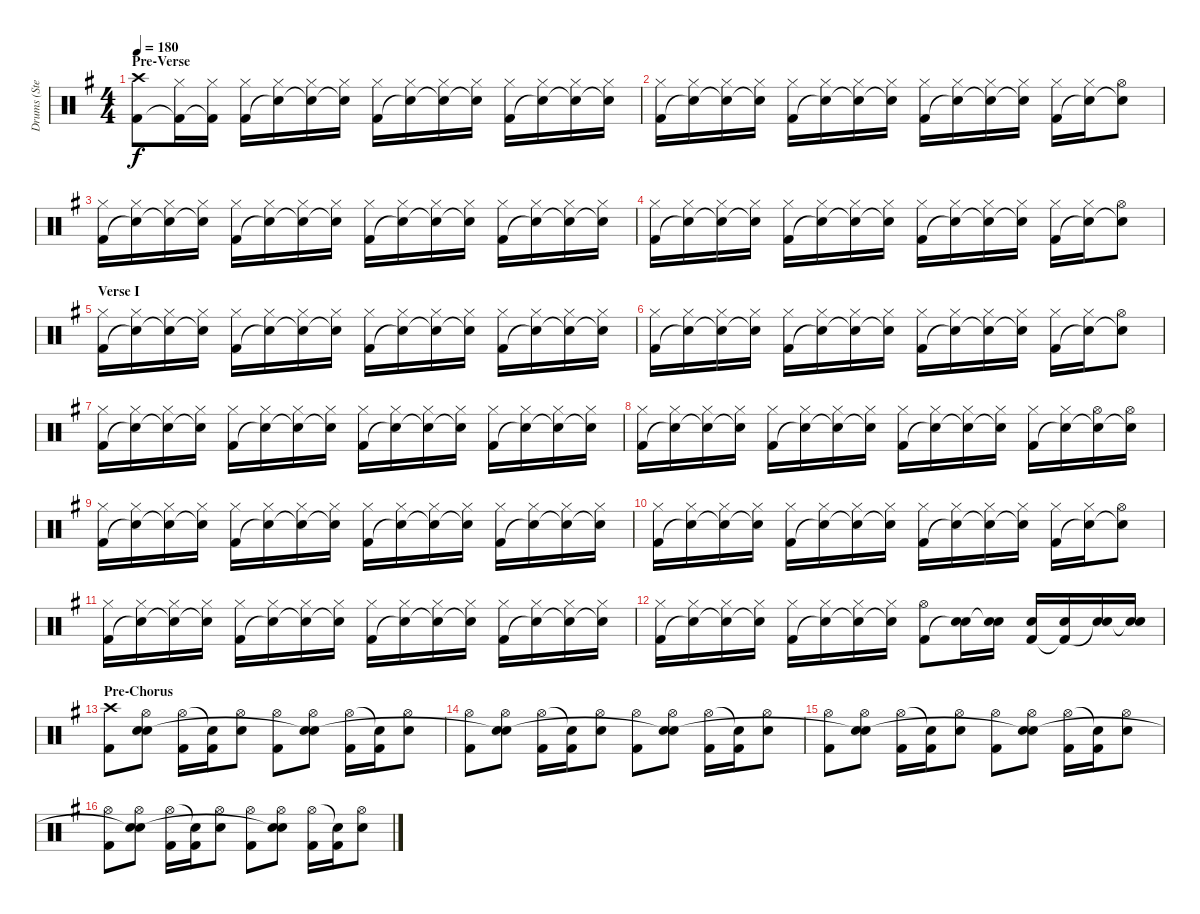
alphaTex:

\track ("Drums (Stevo)" "Drums (Ste") {instrument percussion}
\staff {score}
\articulation defaults
\ts (4 4)
\section ("" "Pre-Verse")
\tempo 180
\clef neutral
\ks g
("Crash high (hit)" "Kick (hit) 2").8{dy f} ("Hi-Hat (closed)" "Kick (hit) 2"{t}).16 ("Hi-Hat (closed)" "Kick (hit) 2"{t}).16 ("Hi-Hat (closed)" "Kick (hit) 2").16 ("Hi-Hat (closed)" "Snare (hit)"{t}).16 ("Hi-Hat (closed)" "Snare (hit)"{t}).16 ("Hi-Hat (closed)" "Snare (hit)"{t}).16 ("Hi-Hat (closed)" "Kick (hit) 2").16 ("Hi-Hat (closed)" "Snare (hit)"{t}).16 ("Hi-Hat (closed)" "Snare (hit)"{t}).16 ("Hi-Hat (closed)" "Snare (hit)"{t}).16 ("Hi-Hat (closed)" "Kick (hit) 2").16 ("Hi-Hat (closed)" "Snare (hit)"{t}).16 ("Hi-Hat (closed)" "Snare (hit)"{t}).16 ("Hi-Hat (closed)" "Snare (hit)"{t}).16 |
("Hi-Hat (closed)" "Kick (hit) 2").16 ("Hi-Hat (closed)" "Snare (hit)"{t}).16 ("Hi-Hat (closed)" "Snare (hit)"{t}).16 ("Hi-Hat (closed)" "Snare (hit)"{t}).16 ("Hi-Hat (closed)" "Kick (hit) 2").16 ("Hi-Hat (closed)" "Snare (hit)"{t}).16 ("Hi-Hat (closed)" "Snare (hit)"{t}).16 ("Hi-Hat (closed)" "Snare (hit)"{t}).16 ("Hi-Hat (closed)" "Kick (hit) 2").16 ("Hi-Hat (closed)" "Snare (hit)"{t}).16 ("Hi-Hat (closed)" "Snare (hit)"{t}).16 ("Hi-Hat (closed)" "Snare (hit)"{t}).16 ("Hi-Hat (closed)" "Kick (hit) 2").16 ("Hi-Hat (closed)" "Snare (hit)"{t}).16 ("Hi-Hat (open)" "Snare (hit)"{t}).8 |
("Hi-Hat (closed)" "Kick (hit) 2").16 ("Hi-Hat (closed)" "Snare (hit)"{t}).16 ("Hi-Hat (closed)" "Snare (hit)"{t}).16 ("Hi-Hat (closed)" "Snare (hit)"{t}).16 ("Hi-Hat (closed)" "Kick (hit) 2").16 ("Hi-Hat (closed)" "Snare (hit)"{t}).16 ("Hi-Hat (closed)" "Snare (hit)"{t}).16 ("Hi-Hat (closed)" "Snare (hit)"{t}).16 ("Hi-Hat (closed)" "Kick (hit) 2").16 ("Hi-Hat (closed)" "Snare (hit)"{t}).16 ("Hi-Hat (closed)" "Snare (hit)"{t}).16 ("Hi-Hat (closed)" "Snare (hit)"{t}).16 ("Hi-Hat (closed)" "Kick (hit) 2").16 ("Hi-Hat (closed)" "Snare (hit)"{t}).16 ("Hi-Hat (closed)" "Snare (hit)"{t}).16 ("Hi-Hat (closed)" "Snare (hit)"{t}).16 |
("Hi-Hat (closed)" "Kick (hit) 2").16 ("Hi-Hat (closed)" "Snare (hit)"{t}).16 ("Hi-Hat (closed)" "Snare (hit)"{t}).16 ("Hi-Hat (closed)" "Snare (hit)"{t}).16 ("Hi-Hat (closed)" "Kick (hit) 2").16 ("Hi-Hat (closed)" "Snare (hit)"{t}).16 ("Hi-Hat (closed)" "Snare (hit)"{t}).16 ("Hi-Hat (closed)" "Snare (hit)"{t}).16 ("Hi-Hat (closed)" "Kick (hit) 2").16 ("Hi-Hat (closed)" "Snare (hit)"{t}).16 ("Hi-Hat (closed)" "Snare (hit)"{t}).16 ("Hi-Hat (closed)" "Snare (hit)"{t}).16 ("Hi-Hat (closed)" "Kick (hit) 2").16 ("Hi-Hat (closed)" "Snare (hit)"{t}).16 ("Hi-Hat (open)" "Snare (hit)"{t}).8 |
\section ("" "Verse I")
("Hi-Hat (closed)" "Kick (hit) 2").16 ("Hi-Hat (closed)" "Snare (hit)"{t}).16 ("Hi-Hat (closed)" "Snare (hit)"{t}).16 ("Hi-Hat (closed)" "Snare (hit)"{t}).16 ("Hi-Hat (closed)" "Kick (hit) 2").16 ("Hi-Hat (closed)" "Snare (hit)"{t}).16 ("Hi-Hat (closed)" "Snare (hit)"{t}).16 ("Hi-Hat (closed)" "Snare (hit)"{t}).16 ("Hi-Hat (closed)" "Kick (hit) 2").16 ("Hi-Hat (closed)" "Snare (hit)"{t}).16 ("Hi-Hat (closed)" "Snare (hit)"{t}).16 ("Hi-Hat (closed)" "Snare (hit)"{t}).16 ("Hi-Hat (closed)" "Kick (hit) 2").16 ("Hi-Hat (closed)" "Snare (hit)"{t}).16 ("Hi-Hat (closed)" "Snare (hit)"{t}).16 ("Hi-Hat (closed)" "Snare (hit)"{t}).16 |
("Hi-Hat (closed)" "Kick (hit) 2").16 ("Hi-Hat (closed)" "Snare (hit)"{t}).16 ("Hi-Hat (closed)" "Snare (hit)"{t}).16 ("Hi-Hat (closed)" "Snare (hit)"{t}).16 ("Hi-Hat (closed)" "Kick (hit) 2").16 ("Hi-Hat (closed)" "Snare (hit)"{t}).16 ("Hi-Hat (closed)" "Snare (hit)"{t}).16 ("Hi-Hat (closed)" "Snare (hit)"{t}).16 ("Hi-Hat (closed)" "Kick (hit) 2").16 ("Hi-Hat (closed)" "Snare (hit)"{t}).16 ("Hi-Hat (closed)" "Snare (hit)"{t}).16 ("Hi-Hat (closed)" "Snare (hit)"{t}).16 ("Hi-Hat (closed)" "Kick (hit) 2").16 ("Hi-Hat (closed)" "Snare (hit)"{t}).16 ("Hi-Hat (open)" "Snare (hit)"{t}).8 |
("Hi-Hat (closed)" "Kick (hit) 2").16 ("Hi-Hat (closed)" "Snare (hit)"{t}).16 ("Hi-Hat (closed)" "Snare (hit)"{t}).16 ("Hi-Hat (closed)" "Snare (hit)"{t}).16 ("Hi-Hat (closed)" "Kick (hit) 2").16 ("Hi-Hat (closed)" "Snare (hit)"{t}).16 ("Hi-Hat (closed)" "Snare (hit)"{t}).16 ("Hi-Hat (closed)" "Snare (hit)"{t}).16 ("Hi-Hat (closed)" "Kick (hit) 2").16 ("Hi-Hat (closed)" "Snare (hit)"{t}).16 ("Hi-Hat (closed)" "Snare (hit)"{t}).16 ("Hi-Hat (closed)" "Snare (hit)"{t}).16 ("Hi-Hat (closed)" "Kick (hit) 2").16 ("Hi-Hat (closed)" "Snare (hit)"{t}).16 ("Hi-Hat (closed)" "Snare (hit)"{t}).16 ("Hi-Hat (closed)" "Snare (hit)"{t}).16 |
("Hi-Hat (closed)" "Kick (hit) 2").16 ("Hi-Hat (closed)" "Snare (hit)"{t}).16 ("Hi-Hat (closed)" "Snare (hit)"{t}).16 ("Hi-Hat (closed)" "Snare (hit)"{t}).16 ("Hi-Hat (closed)" "Kick (hit) 2").16 ("Hi-Hat (closed)" "Snare (hit)"{t}).16 ("Hi-Hat (closed)" "Snare (hit)"{t}).16 ("Hi-Hat (closed)" "Snare (hit)"{t}).16 ("Hi-Hat (closed)" "Kick (hit) 2").16 ("Hi-Hat (closed)" "Snare (hit)"{t}).16 ("Hi-Hat (closed)" "Snare (hit)"{t}).16 ("Hi-Hat (closed)" "Snare (hit)"{t}).16 ("Hi-Hat (closed)" "Kick (hit) 2").16 ("Hi-Hat (closed)" "Snare (hit)"{t}).16 ("Hi-Hat (open)" "Snare (hit)"{t}).16 ("Hi-Hat (open)" "Snare (hit)"{t}).16 |
("Hi-Hat (closed)" "Kick (hit) 2").16 ("Hi-Hat (closed)" "Snare (hit)"{t}).16 ("Hi-Hat (closed)" "Snare (hit)"{t}).16 ("Hi-Hat (closed)" "Snare (hit)"{t}).16 ("Hi-Hat (closed)" "Kick (hit) 2").16 ("Hi-Hat (closed)" "Snare (hit)"{t}).16 ("Hi-Hat (closed)" "Snare (hit)"{t}).16 ("Hi-Hat (closed)" "Snare (hit)"{t}).16 ("Hi-Hat (closed)" "Kick (hit) 2").16 ("Hi-Hat (closed)" "Snare (hit)"{t}).16 ("Hi-Hat (closed)" "Snare (hit)"{t}).16 ("Hi-Hat (closed)" "Snare (hit)"{t}).16 ("Hi-Hat (closed)" "Kick (hit) 2").16 ("Hi-Hat (closed)" "Snare (hit)"{t}).16 ("Hi-Hat (closed)" "Snare (hit)"{t}).16 ("Hi-Hat (closed)" "Snare (hit)"{t}).16 |
("Hi-Hat (closed)" "Kick (hit) 2").16 ("Hi-Hat (closed)" "Snare (hit)"{t}).16 ("Hi-Hat (closed)" "Snare (hit)"{t}).16 ("Hi-Hat (closed)" "Snare (hit)"{t}).16 ("Hi-Hat (closed)" "Kick (hit) 2").16 ("Hi-Hat (closed)" "Snare (hit)"{t}).16 ("Hi-Hat (closed)" "Snare (hit)"{t}).16 ("Hi-Hat (closed)" "Snare (hit)"{t}).16 ("Hi-Hat (closed)" "Kick (hit) 2").16 ("Hi-Hat (closed)" "Snare (hit)"{t}).16 ("Hi-Hat (closed)" "Snare (hit)"{t}).16 ("Hi-Hat (closed)" "Snare (hit)"{t}).16 ("Hi-Hat (closed)" "Kick (hit) 2").16 ("Hi-Hat (closed)" "Snare (hit)"{t}).16 ("Hi-Hat (open)" "Snare (hit)"{t}).8 |
("Hi-Hat (closed)" "Kick (hit) 2").16 ("Hi-Hat (closed)" "Snare (hit)"{t}).16 ("Hi-Hat (closed)" "Snare (hit)"{t}).16 ("Hi-Hat (closed)" "Snare (hit)"{t}).16 ("Hi-Hat (closed)" "Kick (hit) 2").16 ("Hi-Hat (closed)" "Snare (hit)"{t}).16 ("Hi-Hat (closed)" "Snare (hit)"{t}).16 ("Hi-Hat (closed)" "Snare (hit)"{t}).16 ("Hi-Hat (closed)" "Kick (hit) 2").16 ("Hi-Hat (closed)" "Snare (hit)"{t}).16 ("Hi-Hat (closed)" "Snare (hit)"{t}).16 ("Hi-Hat (closed)" "Snare (hit)"{t}).16 ("Hi-Hat (closed)" "Kick (hit) 2").16 ("Hi-Hat (closed)" "Snare (hit)"{t}).16 ("Hi-Hat (closed)" "Snare (hit)"{t}).16 ("Hi-Hat (closed)" "Snare (hit)"{t}).16 |
("Hi-Hat (closed)" "Kick (hit) 2").16 ("Hi-Hat (closed)" "Snare (hit)"{t}).16 ("Hi-Hat (closed)" "Snare (hit)"{t}).16 ("Hi-Hat (closed)" "Snare (hit)"{t}).16 ("Hi-Hat (closed)" "Kick (hit) 2").16 ("Hi-Hat (closed)" "Snare (hit)"{t}).16 ("Hi-Hat (closed)" "Snare (hit)"{t}).16 ("Hi-Hat (closed)" "Snare (hit)"{t}).16 ("Hi-Hat (open)" "Kick (hit) 2").8 ("Snare (hit) 2" "Snare (hit)"{t}).16 ("Snare (hit) 2" "Snare (hit)"{t}).16 ("Snare (hit) 2" "Kick (hit) 2").16 ("Snare (hit) 2" "Kick (hit) 2"{t}).16 ("Snare (hit) 2" "Snare (hit)"{t}).16 ("Snare (hit) 2" "Snare (hit)"{t}).16 |
\section ("" "Pre-Chorus")
("Crash high (hit)" "Kick (hit) 2").8 ("Hi-Hat (open)" "Snare (hit) 2" "Snare (hit)").8 ("Hi-Hat (open)" "Kick (hit) 2").16 ("Snare (hit)"{t} "Kick (hit) 2").16 ("Hi-Hat (open)" "Snare (hit) 2").8 ("Hi-Hat (open)" "Kick (hit) 2").8 ("Hi-Hat (open)" "Snare (hit) 2" "Snare (hit)"{t}).8 ("Hi-Hat (open)" "Kick (hit) 2").16 ("Snare (hit)"{t} "Kick (hit) 2").16 ("Hi-Hat (open)" "Snare (hit) 2").8 |
("Hi-Hat (open)" "Kick (hit) 2").8 ("Hi-Hat (open)" "Snare (hit) 2" "Snare (hit)"{t}).8 ("Hi-Hat (open)" "Kick (hit) 2").16 ("Snare (hit)"{t} "Kick (hit) 2").16 ("Hi-Hat (open)" "Snare (hit) 2").8 ("Hi-Hat (open)" "Kick (hit) 2").8 ("Hi-Hat (open)" "Snare (hit) 2" "Snare (hit)"{t}).8 ("Hi-Hat (open)" "Kick (hit) 2").16 ("Snare (hit)"{t} "Kick (hit) 2").16 ("Hi-Hat (open)" "Snare (hit) 2").8 |
("Hi-Hat (open)" "Kick (hit) 2").8 ("Hi-Hat (open)" "Snare (hit) 2" "Snare (hit)"{t}).8 ("Hi-Hat (open)" "Kick (hit) 2").16 ("Snare (hit)"{t} "Kick (hit) 2").16 ("Hi-Hat (open)" "Snare (hit) 2").8 ("Hi-Hat (open)" "Kick (hit) 2").8 ("Hi-Hat (open)" "Snare (hit) 2" "Snare (hit)"{t}).8 ("Hi-Hat (open)" "Kick (hit) 2").16 ("Snare (hit)"{t} "Kick (hit) 2").16 ("Hi-Hat (open)" "Snare (hit) 2").8 |
("Hi-Hat (open)" "Kick (hit) 2").8 ("Hi-Hat (open)" "Snare (hit) 2" "Snare (hit)"{t}).8 ("Hi-Hat (open)" "Kick (hit) 2").16 ("Snare (hit)"{t} "Kick (hit) 2").16 ("Hi-Hat (open)" "Snare (hit) 2").8 ("Hi-Hat (open)" "Kick (hit) 2").8 ("Hi-Hat (open)" "Snare (hit) 2" "Snare (hit)"{t}).8 ("Hi-Hat (open)" "Kick (hit) 2").16 ("Snare (hit)"{t} "Kick (hit) 2").16 ("Hi-Hat (open)" "Snare (hit) 2").8
